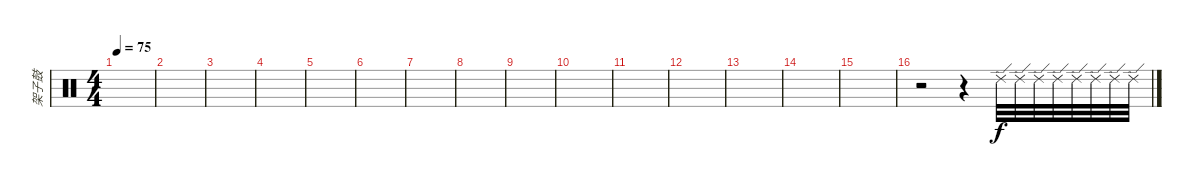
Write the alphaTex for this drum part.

\track ("架子鼓" "架子鼓") {instrument percussion}
\staff {score}
\articulation defaults
\ts (4 4)
\tempo 75
\clef neutral
\ks c
|
|
|
|
|
|
|
|
|
|
|
|
|
|
|
r.2{volume 0} r.4 "Ride (edge) 2".32{volume 16} "Ride (edge) 2".32 "Ride (edge) 2".32 "Ride (edge) 2".32 "Ride (edge) 2".32 "Ride (edge) 2".32 "Ride (edge) 2".32 "Ride (edge) 2".32
